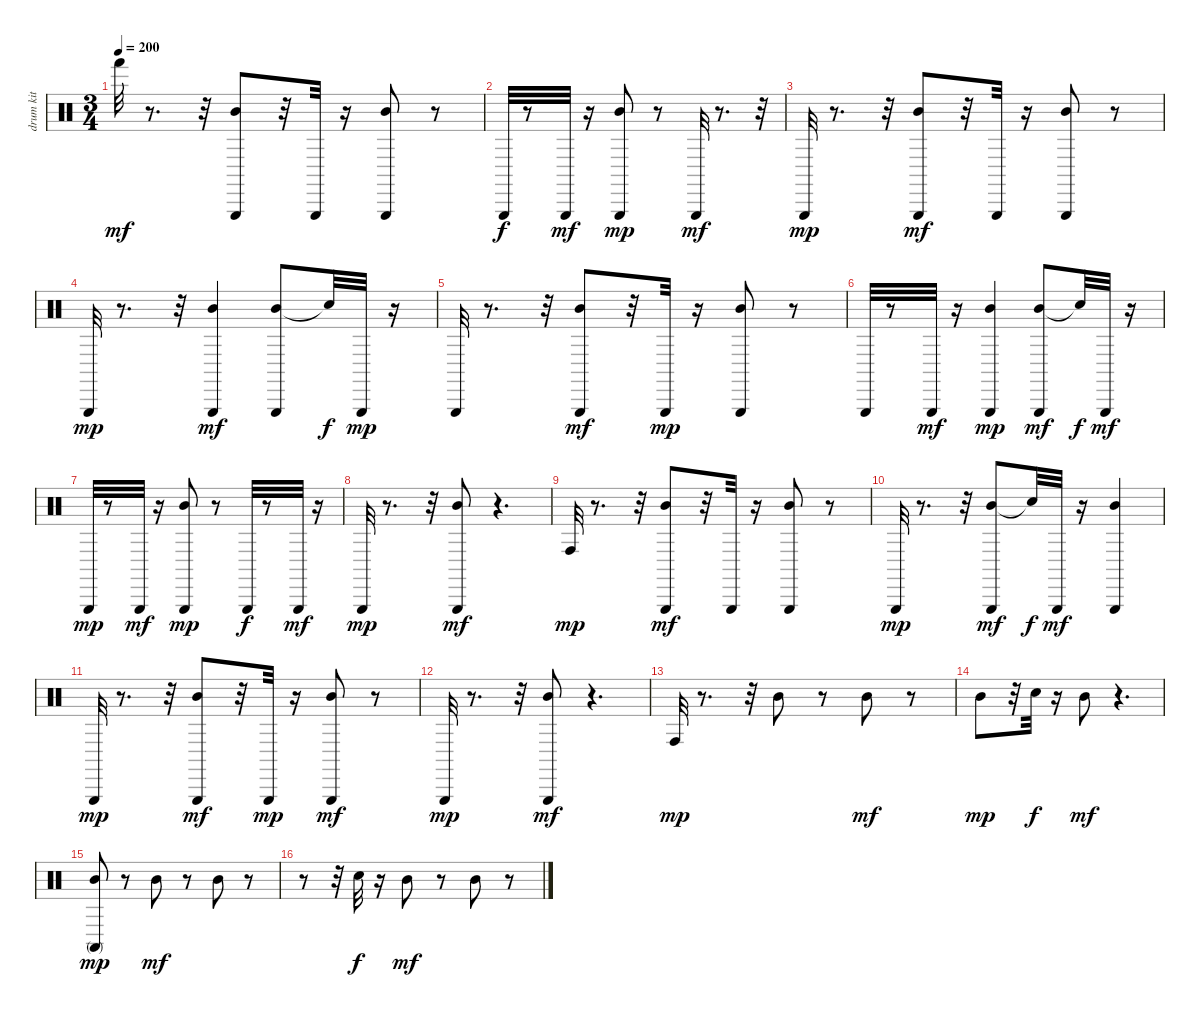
\track (" drum kit (hi-hat/cymbals)" " drum kit ") {instrument percussion}
\staff {score}
\articulation defaults
\ts (3 4)
\tempo 200
\clef neutral
\ks c "Hand (hit)".32{dy mf}
r.8{d} r.32 ("Triangle (hit)" "Mid Tom (hit)").8 r.32 "Triangle (hit)".32 r.16 ("Triangle (hit)" "Mid Tom (hit)").8 r.8 |
"Triangle (hit)".32{dy f} r.8 "Triangle (hit)".32{dy mf} r.16 ("Mid Tom (hit)" "Triangle (hit)").8{dy mp} r.8 "Triangle (hit)".32{dy mf} r.8{d} r.32 |
"Triangle (hit)".32{dy mp} r.8{d} r.32 ("Mid Tom (hit)" "Triangle (hit)").8{dy mf} r.32 "Triangle (hit)".32 r.16 ("Mid Tom (hit)" "Triangle (hit)").8 r.8 |
"Triangle (hit)".32{dy mp} r.8{d} r.32 ("Mid Tom (hit)" "Triangle (hit)").4{dy mf} ("Mid Tom (hit)" "Triangle (hit)").8 "Snare (hit)"{t}.32{dy f} "Triangle (hit)".32{dy mp} r.16 |
"Triangle (hit)".32 r.8{d} r.32 ("Mid Tom (hit)" "Triangle (hit)").8{dy mf} r.32 "Triangle (hit)".32{dy mp} r.16 ("Mid Tom (hit)" "Triangle (hit)").8 r.8 |
"Triangle (hit)".32 r.8 "Triangle (hit)".32{dy mf} r.16 ("Mid Tom (hit)" "Triangle (hit)").4{dy mp} ("Mid Tom (hit)" "Triangle (hit)").8{dy mf} "Snare (hit)"{t}.32{dy f} "Triangle (hit)".32{dy mf} r.16 |
"Triangle (hit)".32{dy mp} r.8 "Triangle (hit)".32{dy mf} r.16 ("Mid Tom (hit)" "Triangle (hit)").8{dy mp} r.8 "Triangle (hit)".32{dy f} r.8 "Triangle (hit)".32{dy mf} r.16 |
"Triangle (hit)".32{dy mp} r.8{d} r.32 ("Mid Tom (hit)" "Triangle (hit)").8{dy mf} r.4{d} |
"Conga high (hit)".32{dy mp} r.8{d} r.32 ("Mid Tom (hit)" "Triangle (hit)").8{dy mf} r.32 "Triangle (hit)".32 r.16 ("Mid Tom (hit)" "Triangle (hit)").8 r.8 |
"Triangle (hit)".32{dy mp} r.8{d} r.32 ("Mid Tom (hit)" "Triangle (hit)").8{dy mf} "Snare (hit)"{t}.32{dy f} "Triangle (hit)".32{dy mf} r.16 ("Mid Tom (hit)" "Triangle (hit)").4 |
"Triangle (hit)".32{dy mp} r.8{d} r.32 ("Mid Tom (hit)" "Triangle (hit)").8{dy mf} r.32 "Triangle (hit)".32{dy mp} r.16 ("Mid Tom (hit)" "Triangle (hit)").8{dy mf} r.8 |
"Triangle (hit)".32{dy mp} r.8{d} r.32 ("Mid Tom (hit)" "Triangle (hit)").8{dy mf} r.4{d} |
"Conga high (hit)".32{dy mp} r.8{d} r.32 "Mid Tom (hit)".8 r.8 "Mid Tom (hit)".8{dy mf} r.8 |
"Mid Tom (hit)".8{dy mp} r.32 "Snare (hit)".32{dy f} r.16 "Mid Tom (hit)".8{dy mf} r.4{d} |
("Mid Tom (hit)" "Conga high (mute)").8{dy mp} r.8 "Mid Tom (hit)".8{dy mf} r.8 "Mid Tom (hit)".8 r.8 |
r.8 r.32 "Snare (hit)".32{dy f} r.16 "Mid Tom (hit)".8{dy mf} r.8 "Mid Tom (hit)".8 r.8
